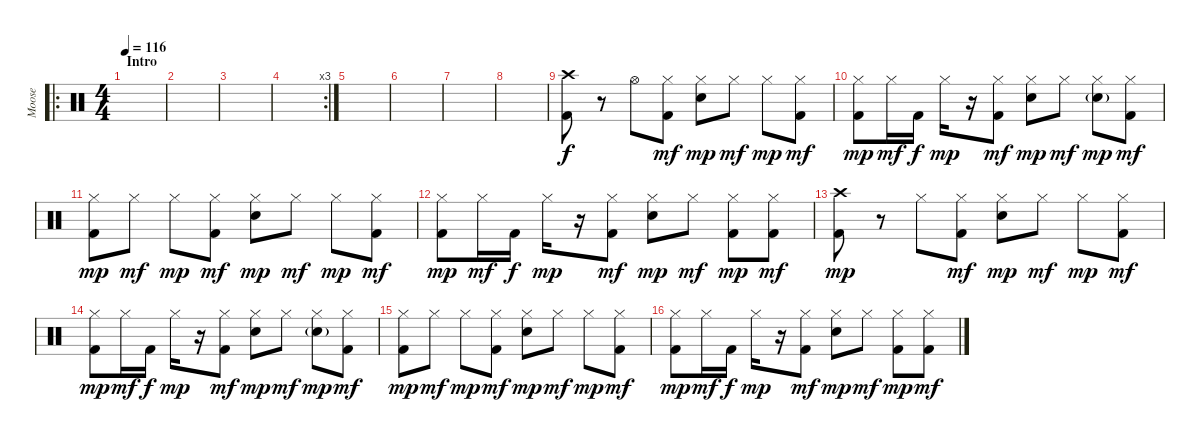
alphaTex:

\track ("Moose" "Moose") {instrument percussion}
\staff {score}
\articulation defaults
\ro
\ts (4 4)
\section ("" "Intro")
\tempo 116
\clef neutral
\ks c
|
|
|
\rc 3
|
|
|
|
|
("Kick (hit) 2" "Crash high (hit)").8 r.8 "Hi-Hat (open)".8 ("Kick (hit) 2" "Hi-Hat (closed)").8{dy mf} ("Snare (hit) 2" "Hi-Hat (closed)").8{dy mp} "Hi-Hat (closed)".8{dy mf} "Hi-Hat (closed)".8{dy mp} ("Kick (hit) 2" "Hi-Hat (closed)").8{dy mf} |
("Kick (hit) 2" "Hi-Hat (closed)").8{dy mp} "Hi-Hat (closed)".16{dy mf} "Kick (hit) 2".16{dy f} "Hi-Hat (closed)".16{dy mp} r.16 ("Kick (hit) 2" "Hi-Hat (closed)").8{dy mf} ("Snare (hit) 2" "Hi-Hat (closed)").8{dy mp} "Hi-Hat (closed)".8{dy mf} ("Snare (hit) 2"{g} "Hi-Hat (closed)").8{dy mp} ("Kick (hit) 2" "Hi-Hat (closed)").8{dy mf} |
("Kick (hit) 2" "Hi-Hat (closed)").8{dy mp} "Hi-Hat (closed)".8{dy mf} "Hi-Hat (closed)".8{dy mp} ("Kick (hit) 2" "Hi-Hat (closed)").8{dy mf} ("Snare (hit) 2" "Hi-Hat (closed)").8{dy mp} "Hi-Hat (closed)".8{dy mf} "Hi-Hat (closed)".8{dy mp} ("Kick (hit) 2" "Hi-Hat (closed)").8{dy mf} |
("Kick (hit) 2" "Hi-Hat (closed)").8{dy mp} "Hi-Hat (closed)".16{dy mf} "Kick (hit) 2".16{dy f} "Hi-Hat (closed)".16{dy mp} r.16 ("Kick (hit) 2" "Hi-Hat (closed)").8{dy mf} ("Snare (hit) 2" "Hi-Hat (closed)").8{dy mp} "Hi-Hat (closed)".8{dy mf} ("Kick (hit) 2" "Hi-Hat (closed)").8{dy mp} ("Kick (hit) 2" "Hi-Hat (closed)").8{dy mf} |
("Kick (hit) 2" "Crash high (hit)").8{dy mp} r.8 "Hi-Hat (closed)".8 ("Kick (hit) 2" "Hi-Hat (closed)").8{dy mf} ("Snare (hit) 2" "Hi-Hat (closed)").8{dy mp} "Hi-Hat (closed)".8{dy mf} "Hi-Hat (closed)".8{dy mp} ("Kick (hit) 2" "Hi-Hat (closed)").8{dy mf} |
("Kick (hit) 2" "Hi-Hat (closed)").8{dy mp} "Hi-Hat (closed)".16{dy mf} "Kick (hit) 2".16{dy f} "Hi-Hat (closed)".16{dy mp} r.16 ("Kick (hit) 2" "Hi-Hat (closed)").8{dy mf} ("Snare (hit) 2" "Hi-Hat (closed)").8{dy mp} "Hi-Hat (closed)".8{dy mf} ("Snare (hit) 2"{g} "Hi-Hat (closed)").8{dy mp} ("Kick (hit) 2" "Hi-Hat (closed)").8{dy mf} |
("Kick (hit) 2" "Hi-Hat (closed)").8{dy mp} "Hi-Hat (closed)".8{dy mf} "Hi-Hat (closed)".8{dy mp} ("Kick (hit) 2" "Hi-Hat (closed)").8{dy mf} ("Snare (hit) 2" "Hi-Hat (closed)").8{dy mp} "Hi-Hat (closed)".8{dy mf} "Hi-Hat (closed)".8{dy mp} ("Kick (hit) 2" "Hi-Hat (closed)").8{dy mf} |
("Kick (hit) 2" "Hi-Hat (closed)").8{dy mp} "Hi-Hat (closed)".16{dy mf} "Kick (hit) 2".16{dy f} "Hi-Hat (closed)".16{dy mp} r.16 ("Kick (hit) 2" "Hi-Hat (closed)").8{dy mf} ("Snare (hit) 2" "Hi-Hat (closed)").8{dy mp} "Hi-Hat (closed)".8{dy mf} ("Kick (hit) 2" "Hi-Hat (closed)").8{dy mp} ("Kick (hit) 2" "Hi-Hat (closed)").8{dy mf}
